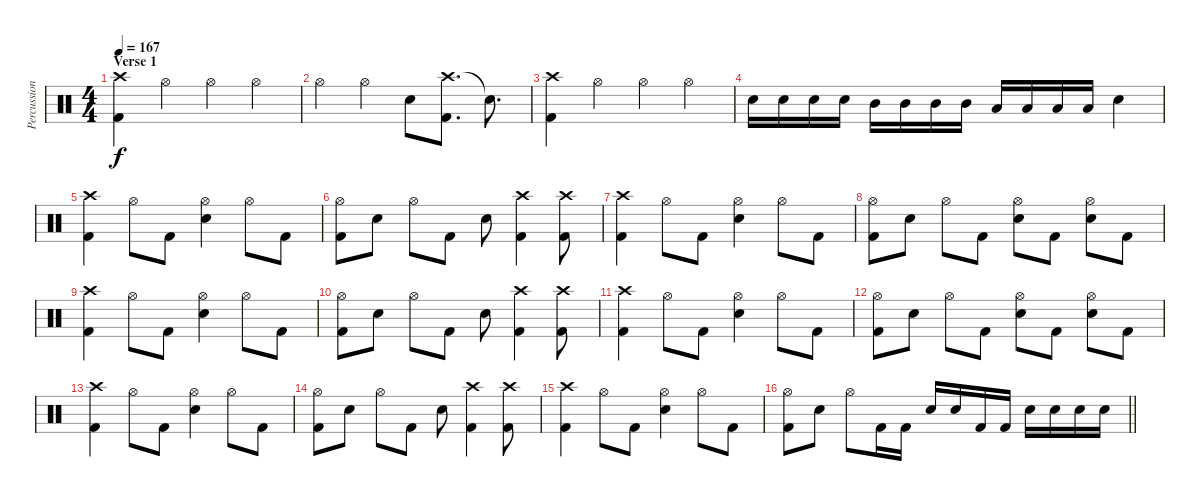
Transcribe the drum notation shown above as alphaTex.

\track ("Percussion" "Percussion") {instrument percussion}
\staff {score}
\articulation defaults
\ts (4 4)
\section ("" "Verse 1")
\tempo 167
\clef neutral
\ks c
("Crash high (hit)" "Kick (hit) 2").4{dy f} "Hi-Hat (open)".4 "Hi-Hat (open)".4 "Hi-Hat (open)".4 |
"Hi-Hat (open)".4 "Hi-Hat (open)".4 "Snare (hit) 2".8 ("Crash high (hit)" "Kick (hit) 2").8{d} "Snare (hit)"{t}.8{d} |
("Crash high (hit)" "Kick (hit) 2").4 "Hi-Hat (open)".4 "Hi-Hat (open)".4 "Hi-Hat (open)".4 |
"Snare (hit) 2".16 "Snare (hit) 2".16 "Snare (hit) 2".16 "Snare (hit) 2".16 "Mid Tom (hit)".16 "Mid Tom (hit)".16 "Mid Tom (hit)".16 "Mid Tom (hit)".16 "Low Tom (hit)".16 "Low Tom (hit)".16 "Low Tom (hit)".16 "Low Tom (hit)".16 "Snare (hit) 2".4 |
("Crash high (hit)" "Kick (hit) 2").4 "Hi-Hat (open)".8 "Kick (hit) 2".8 ("Hi-Hat (open)" "Snare (hit) 2").4 "Hi-Hat (open)".8 "Kick (hit) 2".8 |
("Hi-Hat (open)" "Kick (hit) 2").8 "Snare (hit) 2".8 "Hi-Hat (open)".8 "Kick (hit) 2".8 "Snare (hit) 2".8 ("Crash high (hit)" "Kick (hit) 2").4 ("Crash high (hit)" "Kick (hit) 2").8 |
("Crash high (hit)" "Kick (hit) 2").4 "Hi-Hat (open)".8 "Kick (hit) 2".8 ("Hi-Hat (open)" "Snare (hit) 2").4 "Hi-Hat (open)".8 "Kick (hit) 2".8 |
("Hi-Hat (open)" "Kick (hit) 2").8 "Snare (hit) 2".8 "Hi-Hat (open)".8 "Kick (hit) 2".8 ("Hi-Hat (open)" "Snare (hit) 2").8 "Kick (hit) 2".8 ("Hi-Hat (open)" "Snare (hit) 2").8 "Kick (hit) 2".8 |
("Crash high (hit)" "Kick (hit) 2").4 "Hi-Hat (open)".8 "Kick (hit) 2".8 ("Hi-Hat (open)" "Snare (hit) 2").4 "Hi-Hat (open)".8 "Kick (hit) 2".8 |
("Hi-Hat (open)" "Kick (hit) 2").8 "Snare (hit) 2".8 "Hi-Hat (open)".8 "Kick (hit) 2".8 "Snare (hit) 2".8 ("Crash high (hit)" "Kick (hit) 2").4 ("Crash high (hit)" "Kick (hit) 2").8 |
("Crash high (hit)" "Kick (hit) 2").4 "Hi-Hat (open)".8 "Kick (hit) 2".8 ("Hi-Hat (open)" "Snare (hit) 2").4 "Hi-Hat (open)".8 "Kick (hit) 2".8 |
("Hi-Hat (open)" "Kick (hit) 2").8 "Snare (hit) 2".8 "Hi-Hat (open)".8 "Kick (hit) 2".8 ("Hi-Hat (open)" "Snare (hit) 2").8 "Kick (hit) 2".8 ("Hi-Hat (open)" "Snare (hit) 2").8 "Kick (hit) 2".8 |
("Crash high (hit)" "Kick (hit) 2").4 "Hi-Hat (open)".8 "Kick (hit) 2".8 ("Hi-Hat (open)" "Snare (hit) 2").4 "Hi-Hat (open)".8 "Kick (hit) 2".8 |
("Hi-Hat (open)" "Kick (hit) 2").8 "Snare (hit) 2".8 "Hi-Hat (open)".8 "Kick (hit) 2".8 "Snare (hit) 2".8 ("Crash high (hit)" "Kick (hit) 2").4 ("Crash high (hit)" "Kick (hit) 2").8 |
("Crash high (hit)" "Kick (hit) 2").4 "Hi-Hat (open)".8 "Kick (hit) 2".8 ("Hi-Hat (open)" "Snare (hit) 2").4 "Hi-Hat (open)".8 "Kick (hit) 2".8 |
\barLineRight lightlight
("Hi-Hat (open)" "Kick (hit) 2").8 "Snare (hit) 2".8 "Hi-Hat (open)".8 "Kick (hit) 2".16 "Kick (hit) 2".16 "Snare (hit) 2".16 "Snare (hit) 2".16 "Kick (hit) 2".16 "Kick (hit) 2".16 "Snare (hit) 2".16 "Snare (hit) 2".16 "Snare (hit) 2".16 "Snare (hit) 2".16
